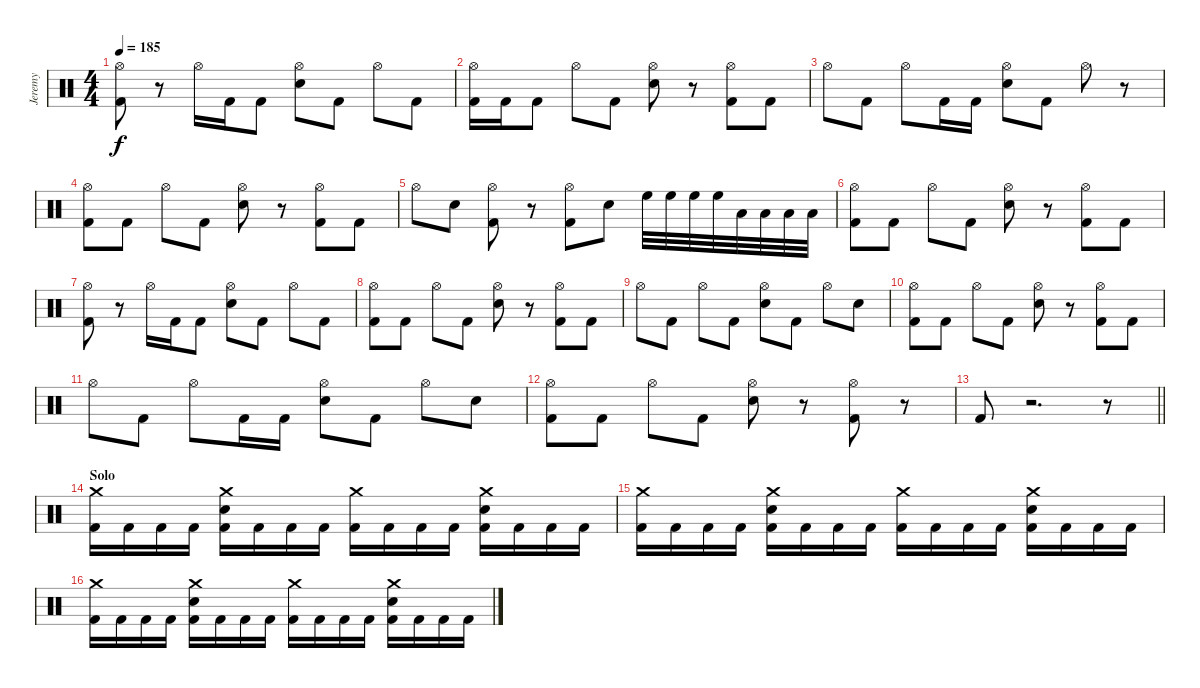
\track ("Jeremy" "Jeremy") {instrument percussion}
\staff {score}
\articulation defaults
\ts (4 4)
\tempo 185
\clef neutral
\ks c
("Hi-Hat (open)" "Kick (hit) 2").8{dy f} r.8 "Hi-Hat (open)".16 "Kick (hit) 2".16 "Kick (hit) 2".8 ("Hi-Hat (open)" "Snare (hit) 2").8 "Kick (hit) 2".8 "Hi-Hat (open)".8 "Kick (hit) 2".8 |
("Hi-Hat (open)" "Kick (hit) 2").16 "Kick (hit) 2".16 "Kick (hit) 2".8 "Hi-Hat (open)".8 "Kick (hit) 2".8 ("Hi-Hat (open)" "Snare (hit) 2").8 r.8 ("Hi-Hat (open)" "Kick (hit) 2").8 "Kick (hit) 2".8 |
"Hi-Hat (open)".8 "Kick (hit) 2".8 "Hi-Hat (open)".8 "Kick (hit) 2".16 "Kick (hit) 2".16 ("Hi-Hat (open)" "Snare (hit) 2").8 "Kick (hit) 2".8 "Hi-Hat (open)".8 r.8 |
("Hi-Hat (open)" "Kick (hit) 2").8 "Kick (hit) 2".8 "Hi-Hat (open)".8 "Kick (hit) 2".8 ("Hi-Hat (open)" "Snare (hit) 2").8 r.8 ("Hi-Hat (open)" "Kick (hit) 2").8 "Kick (hit) 2".8 |
"Hi-Hat (open)".8 "Snare (hit) 2".8 ("Hi-Hat (open)" "Kick (hit) 2").8 r.8 ("Hi-Hat (open)" "Kick (hit) 2").8 "Snare (hit) 2".8 "High Floor Tom (hit)".32 "High Floor Tom (hit)".32 "High Floor Tom (hit)".32 "High Floor Tom (hit)".32 "Low Tom (hit)".32 "Low Tom (hit)".32 "Low Tom (hit)".32 "Low Tom (hit)".32 |
("Hi-Hat (open)" "Kick (hit) 2").8 "Kick (hit) 2".8 "Hi-Hat (open)".8 "Kick (hit) 2".8 ("Hi-Hat (open)" "Snare (hit) 2").8 r.8 ("Hi-Hat (open)" "Kick (hit) 2").8 "Kick (hit) 2".8 |
("Hi-Hat (open)" "Kick (hit) 2").8 r.8 "Hi-Hat (open)".16 "Kick (hit) 2".16 "Kick (hit) 2".8 ("Hi-Hat (open)" "Snare (hit) 2").8 "Kick (hit) 2".8 "Hi-Hat (open)".8 "Kick (hit) 2".8 |
("Hi-Hat (open)" "Kick (hit) 2").8 "Kick (hit) 2".8 "Hi-Hat (open)".8 "Kick (hit) 2".8 ("Hi-Hat (open)" "Snare (hit) 2").8 r.8 ("Hi-Hat (open)" "Kick (hit) 2").8 "Kick (hit) 2".8 |
"Hi-Hat (open)".8 "Kick (hit) 2".8 "Hi-Hat (open)".8 "Kick (hit) 2".8 ("Hi-Hat (open)" "Snare (hit) 2").8 "Kick (hit) 2".8 "Hi-Hat (open)".8 "Snare (hit) 2".8 |
("Hi-Hat (open)" "Kick (hit) 2").8 "Kick (hit) 2".8 "Hi-Hat (open)".8 "Kick (hit) 2".8 ("Hi-Hat (open)" "Snare (hit) 2").8 r.8 ("Hi-Hat (open)" "Kick (hit) 2").8 "Kick (hit) 2".8 |
"Hi-Hat (open)".8 "Kick (hit) 2".8 "Hi-Hat (open)".8 "Kick (hit) 2".16 "Kick (hit) 2".16 ("Hi-Hat (open)" "Snare (hit) 2").8 "Kick (hit) 2".8 "Hi-Hat (open)".8 "Snare (hit) 2".8 |
("Hi-Hat (open)" "Kick (hit) 2").8 "Kick (hit) 2".8 "Hi-Hat (open)".8 "Kick (hit) 2".8 ("Hi-Hat (open)" "Snare (hit) 2").8 r.8 ("Hi-Hat (open)" "Kick (hit) 2").8 r.8 |
\barLineRight lightlight "Kick (hit) 2".8
r.2{d} r.8 |
\section ("" "Solo")
("Crash medium (hit)" "Kick (hit) 2").16 "Kick (hit) 2".16 "Kick (hit) 2".16 "Kick (hit) 2".16 ("Crash medium (hit)" "Snare (hit) 2" "Kick (hit) 2").16 "Kick (hit) 2".16 "Kick (hit) 2".16 "Kick (hit) 2".16 ("Crash medium (hit)" "Kick (hit) 2").16 "Kick (hit) 2".16 "Kick (hit) 2".16 "Kick (hit) 2".16 ("Crash medium (hit)" "Snare (hit) 2" "Kick (hit) 2").16 "Kick (hit) 2".16 "Kick (hit) 2".16 "Kick (hit) 2".16 |
("Crash medium (hit)" "Kick (hit) 2").16 "Kick (hit) 2".16 "Kick (hit) 2".16 "Kick (hit) 2".16 ("Crash medium (hit)" "Snare (hit) 2" "Kick (hit) 2").16 "Kick (hit) 2".16 "Kick (hit) 2".16 "Kick (hit) 2".16 ("Crash medium (hit)" "Kick (hit) 2").16 "Kick (hit) 2".16 "Kick (hit) 2".16 "Kick (hit) 2".16 ("Crash medium (hit)" "Snare (hit) 2" "Kick (hit) 2").16 "Kick (hit) 2".16 "Kick (hit) 2".16 "Kick (hit) 2".16 |
("Crash medium (hit)" "Kick (hit) 2").16 "Kick (hit) 2".16 "Kick (hit) 2".16 "Kick (hit) 2".16 ("Crash medium (hit)" "Snare (hit) 2" "Kick (hit) 2").16 "Kick (hit) 2".16 "Kick (hit) 2".16 "Kick (hit) 2".16 ("Crash medium (hit)" "Kick (hit) 2").16 "Kick (hit) 2".16 "Kick (hit) 2".16 "Kick (hit) 2".16 ("Crash medium (hit)" "Snare (hit) 2" "Kick (hit) 2").16 "Kick (hit) 2".16 "Kick (hit) 2".16 "Kick (hit) 2".16
